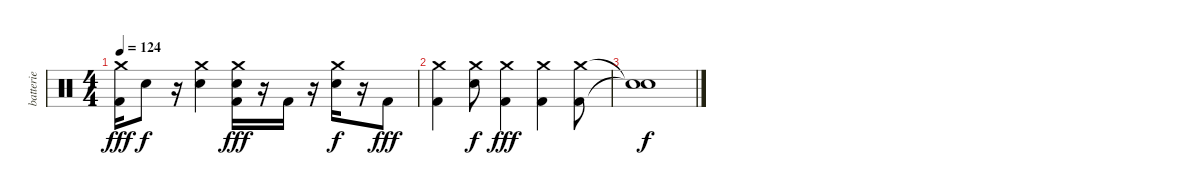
\track ("batterie" "batterie") {instrument percussion}
\staff {score}
\articulation defaults
\ts (4 4)
\tempo 124
\clef neutral
\ks c
("Crash medium (hit)" "Kick (hit) 2").16{dy fff} "Electric Snare (hit)".8{dy f} r.16 ("Crash medium (hit)" "Electric Snare (hit)").4 ("Crash medium (hit)" "Electric Snare (hit)" "Kick (hit) 2").16{dy fff} r.16 "Kick (hit) 2".16 r.16 ("Crash medium (hit)" "Electric Snare (hit)").16{dy f} r.16 "Kick (hit) 2".8{dy fff} |
("Crash medium (hit)" "Kick (hit) 2").4 ("Crash medium (hit)" "Electric Snare (hit)").8{dy f} ("Crash medium (hit)" "Kick (hit) 2").4{dy fff} ("Crash medium (hit)" "Kick (hit) 2").4 ("Crash medium (hit)" "Kick (hit) 2").8 |
("Snare (hit)"{t} "Snare (hit)"{t}).1{dy f}
